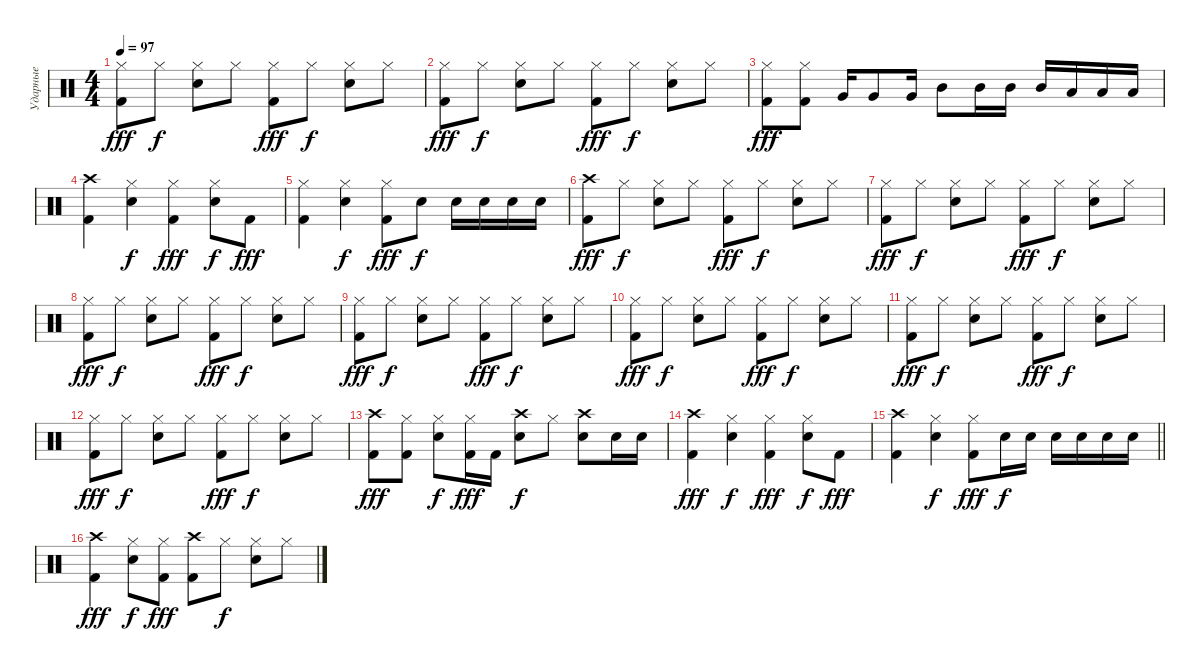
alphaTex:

\track ("Ударные" "Ударные") {instrument percussion}
\staff {score}
\articulation defaults
\ts (4 4)
\tempo 97
\clef neutral
\ks c
("Kick (hit) 2" "Hi-Hat (closed)").8{dy fff} "Hi-Hat (closed)".8{dy f} ("Snare (hit) 2" "Hi-Hat (closed)").8 "Hi-Hat (closed)".8 ("Kick (hit) 2" "Hi-Hat (closed)").8{dy fff} "Hi-Hat (closed)".8{dy f} ("Snare (hit) 2" "Hi-Hat (closed)").8 "Hi-Hat (closed)".8 |
("Kick (hit) 2" "Hi-Hat (closed)").8{dy fff} "Hi-Hat (closed)".8{dy f} ("Snare (hit) 2" "Hi-Hat (closed)").8 "Hi-Hat (closed)".8 ("Kick (hit) 2" "Hi-Hat (closed)").8{dy fff} "Hi-Hat (closed)".8{dy f} ("Snare (hit) 2" "Hi-Hat (closed)").8 "Hi-Hat (closed)".8 |
("Kick (hit) 2" "Hi-Hat (closed)").8{dy fff} ("Kick (hit) 2" "Hi-Hat (closed)").8 "Very Low Tom (hit)".16 "Very Low Tom (hit)".8 "Very Low Tom (hit)".16 "Mid Tom (hit)".8 "Mid Tom (hit)".16 "Mid Tom (hit)".16 "Mid Tom (hit)".16 "Low Tom (hit)".16 "Low Tom (hit)".16 "Low Tom (hit)".16 |
("Kick (hit) 2" "Crash high (hit)").4 ("Snare (hit) 2" "Hi-Hat (closed)").4{dy f} ("Kick (hit) 2" "Hi-Hat (closed)").4{dy fff} ("Snare (hit) 2" "Hi-Hat (closed)").8{dy f} "Kick (hit) 2".8{dy fff} |
("Kick (hit) 2" "Hi-Hat (closed)").4 ("Snare (hit) 2" "Hi-Hat (closed)").4{dy f} ("Kick (hit) 2" "Hi-Hat (closed)").8{dy fff} "Snare (hit) 2".8{dy f} "Snare (hit) 2".16 "Snare (hit) 2".16 "Snare (hit) 2".16 "Snare (hit) 2".16 |
("Kick (hit) 2" "Crash high (hit)").8{dy fff} "Hi-Hat (closed)".8{dy f} ("Snare (hit) 2" "Hi-Hat (closed)").8 "Hi-Hat (closed)".8 ("Kick (hit) 2" "Hi-Hat (closed)").8{dy fff} "Hi-Hat (closed)".8{dy f} ("Snare (hit) 2" "Hi-Hat (closed)").8 "Hi-Hat (closed)".8 |
("Kick (hit) 2" "Hi-Hat (closed)").8{dy fff} "Hi-Hat (closed)".8{dy f} ("Snare (hit) 2" "Hi-Hat (closed)").8 "Hi-Hat (closed)".8 ("Kick (hit) 2" "Hi-Hat (closed)").8{dy fff} "Hi-Hat (closed)".8{dy f} ("Snare (hit) 2" "Hi-Hat (closed)").8 "Hi-Hat (closed)".8 |
("Kick (hit) 2" "Hi-Hat (closed)").8{dy fff} "Hi-Hat (closed)".8{dy f} ("Snare (hit) 2" "Hi-Hat (closed)").8 "Hi-Hat (closed)".8 ("Kick (hit) 2" "Hi-Hat (closed)").8{dy fff} "Hi-Hat (closed)".8{dy f} ("Snare (hit) 2" "Hi-Hat (closed)").8 "Hi-Hat (closed)".8 |
("Kick (hit) 2" "Hi-Hat (closed)").8{dy fff} "Hi-Hat (closed)".8{dy f} ("Snare (hit) 2" "Hi-Hat (closed)").8 "Hi-Hat (closed)".8 ("Kick (hit) 2" "Hi-Hat (closed)").8{dy fff} "Hi-Hat (closed)".8{dy f} ("Snare (hit) 2" "Hi-Hat (closed)").8 "Hi-Hat (closed)".8 |
("Kick (hit) 2" "Hi-Hat (closed)").8{dy fff} "Hi-Hat (closed)".8{dy f} ("Snare (hit) 2" "Hi-Hat (closed)").8 "Hi-Hat (closed)".8 ("Kick (hit) 2" "Hi-Hat (closed)").8{dy fff} "Hi-Hat (closed)".8{dy f} ("Snare (hit) 2" "Hi-Hat (closed)").8 "Hi-Hat (closed)".8 |
("Kick (hit) 2" "Hi-Hat (closed)").8{dy fff} "Hi-Hat (closed)".8{dy f} ("Snare (hit) 2" "Hi-Hat (closed)").8 "Hi-Hat (closed)".8 ("Kick (hit) 2" "Hi-Hat (closed)").8{dy fff} "Hi-Hat (closed)".8{dy f} ("Snare (hit) 2" "Hi-Hat (closed)").8 "Hi-Hat (closed)".8 |
("Kick (hit) 2" "Hi-Hat (closed)").8{dy fff} "Hi-Hat (closed)".8{dy f} ("Snare (hit) 2" "Hi-Hat (closed)").8 "Hi-Hat (closed)".8 ("Kick (hit) 2" "Hi-Hat (closed)").8{dy fff} "Hi-Hat (closed)".8{dy f} ("Snare (hit) 2" "Hi-Hat (closed)").8 "Hi-Hat (closed)".8 |
("Kick (hit) 2" "Crash high (hit)").8{dy fff} ("Kick (hit) 2" "Hi-Hat (closed)").8 ("Snare (hit) 2" "Hi-Hat (closed)").8{dy f} ("Kick (hit) 2" "Hi-Hat (closed)").16{dy fff} "Kick (hit) 2".16 ("Snare (hit) 2" "Crash high (hit)").8{dy f} "Hi-Hat (closed)".8 ("Snare (hit) 2" "Crash high (hit)").8 "Snare (hit) 2".16 "Snare (hit) 2".16 |
("Kick (hit) 2" "Crash high (hit)").4{dy fff} ("Snare (hit) 2" "Hi-Hat (closed)").4{dy f} ("Kick (hit) 2" "Hi-Hat (closed)").4{dy fff} ("Snare (hit) 2" "Hi-Hat (closed)").8{dy f} "Kick (hit) 2".8{dy fff} |
\barLineRight lightlight
("Kick (hit) 2" "Crash high (hit)").4 ("Snare (hit) 2" "Hi-Hat (closed)").4{dy f} ("Kick (hit) 2" "Hi-Hat (closed)").8{dy fff} "Snare (hit) 2".16{dy f} "Snare (hit) 2".16 "Snare (hit) 2".16 "Snare (hit) 2".16 "Snare (hit) 2".16 "Snare (hit) 2".16 |
("Kick (hit) 2" "Crash high (hit)").4{dy fff} ("Snare (hit) 2" "Hi-Hat (closed)").8{dy f} ("Kick (hit) 2" "Hi-Hat (closed)").8{dy fff} ("Kick (hit) 2" "Crash high (hit)").8 "Hi-Hat (closed)".8{dy f} ("Snare (hit) 2" "Hi-Hat (closed)").8 "Hi-Hat (closed)".8
